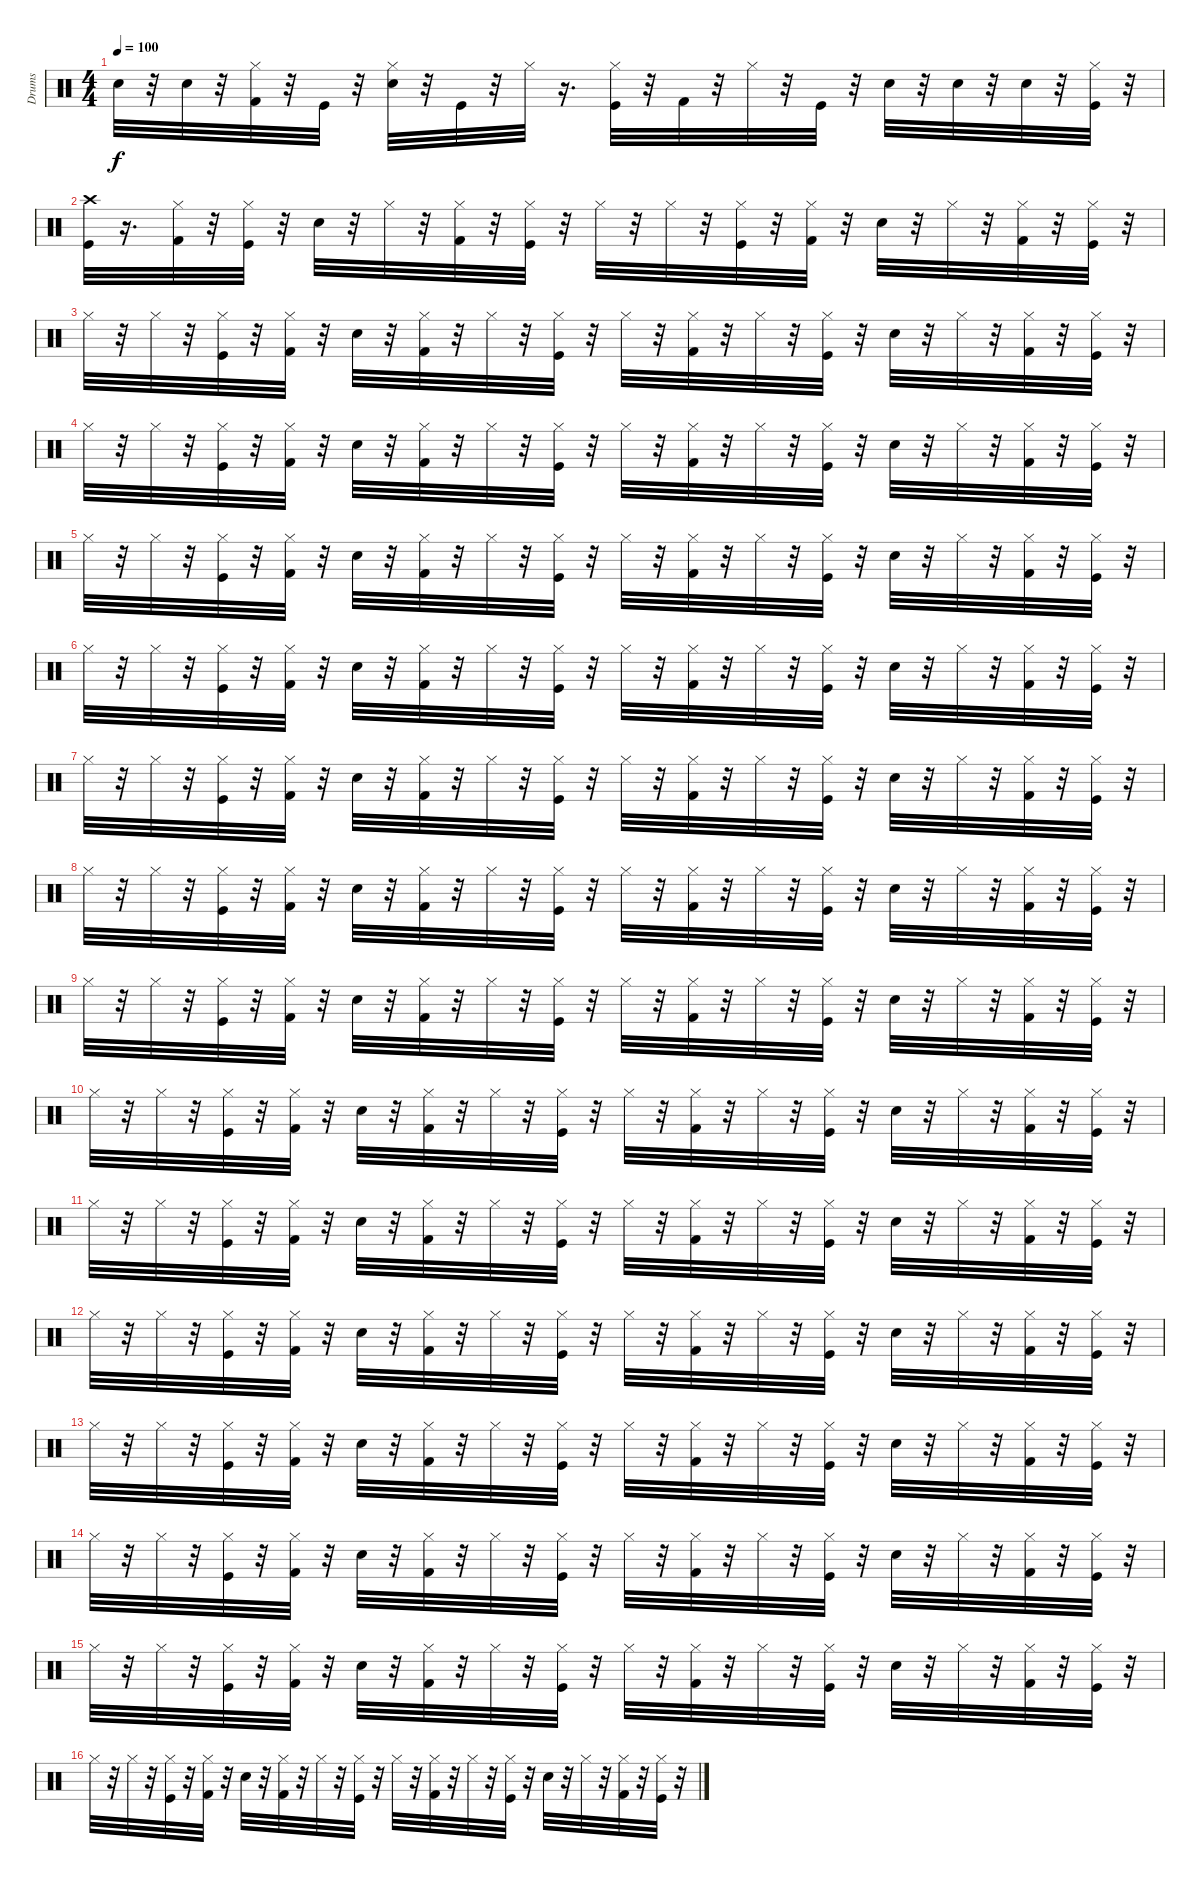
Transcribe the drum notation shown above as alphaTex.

\track ("Drums" "Drums") {instrument percussion}
\staff {score}
\articulation defaults
\ts (4 4)
\tempo 100
\clef neutral
\ks c "Snare (hit) 2".32{dy f}
r.32 "Snare (hit) 2".32 r.32 ("Kick (hit) 2" "Hi-Hat (closed)").32 r.32 "Kick (hit)".32 r.32 ("Electric Snare (hit)" "Hi-Hat (closed)").32 r.32 "Kick (hit)".32 r.32 "Hi-Hat (closed)".32 r.16{d} ("Kick (hit)" "Hi-Hat (closed)").32 r.32 "Kick (hit) 2".32 r.32 "Hi-Hat (closed)".32 r.32 "Kick (hit)".32 r.32 "Electric Snare (hit)".32 r.32 "Electric Snare (hit)".32 r.32 "Electric Snare (hit)".32 r.32 ("Hi-Hat (closed)" "Kick (hit)").32 r.32 |
("Kick (hit)" "Crash high (hit)").32 r.16{d} ("Kick (hit) 2" "Hi-Hat (closed)").32 r.32 ("Kick (hit)" "Hi-Hat (closed)").32 r.32 "Electric Snare (hit)".32 r.32 "Hi-Hat (closed)".32 r.32 ("Kick (hit) 2" "Hi-Hat (closed)").32 r.32 ("Kick (hit)" "Hi-Hat (closed)").32 r.32 "Hi-Hat (closed)".32 r.32 "Hi-Hat (closed)".32 r.32 ("Kick (hit)" "Hi-Hat (closed)").32 r.32 ("Kick (hit) 2" "Hi-Hat (closed)").32 r.32 "Electric Snare (hit)".32 r.32 "Hi-Hat (closed)".32 r.32 ("Kick (hit) 2" "Hi-Hat (closed)").32 r.32 ("Kick (hit)" "Hi-Hat (closed)").32 r.32 |
"Hi-Hat (closed)".32 r.32 "Hi-Hat (closed)".32 r.32 ("Hi-Hat (closed)" "Kick (hit)").32 r.32 ("Hi-Hat (closed)" "Kick (hit) 2").32 r.32 "Electric Snare (hit)".32 r.32 ("Hi-Hat (closed)" "Kick (hit) 2").32 r.32 "Hi-Hat (closed)".32 r.32 ("Hi-Hat (closed)" "Kick (hit)").32 r.32 "Hi-Hat (closed)".32 r.32 ("Hi-Hat (closed)" "Kick (hit) 2").32 r.32 "Hi-Hat (closed)".32 r.32 ("Hi-Hat (closed)" "Kick (hit)").32 r.32 "Electric Snare (hit)".32 r.32 "Hi-Hat (closed)".32 r.32 ("Hi-Hat (closed)" "Kick (hit) 2").32 r.32 ("Hi-Hat (closed)" "Kick (hit)").32 r.32 |
"Hi-Hat (closed)".32 r.32 "Hi-Hat (closed)".32 r.32 ("Hi-Hat (closed)" "Kick (hit)").32 r.32 ("Hi-Hat (closed)" "Kick (hit) 2").32 r.32 "Electric Snare (hit)".32 r.32 ("Hi-Hat (closed)" "Kick (hit) 2").32 r.32 "Hi-Hat (closed)".32 r.32 ("Hi-Hat (closed)" "Kick (hit)").32 r.32 "Hi-Hat (closed)".32 r.32 ("Hi-Hat (closed)" "Kick (hit) 2").32 r.32 "Hi-Hat (closed)".32 r.32 ("Hi-Hat (closed)" "Kick (hit)").32 r.32 "Electric Snare (hit)".32 r.32 "Hi-Hat (closed)".32 r.32 ("Hi-Hat (closed)" "Kick (hit) 2").32 r.32 ("Hi-Hat (closed)" "Kick (hit)").32 r.32 |
"Hi-Hat (closed)".32 r.32 "Hi-Hat (closed)".32 r.32 ("Hi-Hat (closed)" "Kick (hit)").32 r.32 ("Hi-Hat (closed)" "Kick (hit) 2").32 r.32 "Electric Snare (hit)".32 r.32 ("Hi-Hat (closed)" "Kick (hit) 2").32 r.32 "Hi-Hat (closed)".32 r.32 ("Hi-Hat (closed)" "Kick (hit)").32 r.32 "Hi-Hat (closed)".32 r.32 ("Hi-Hat (closed)" "Kick (hit) 2").32 r.32 "Hi-Hat (closed)".32 r.32 ("Hi-Hat (closed)" "Kick (hit)").32 r.32 "Electric Snare (hit)".32 r.32 "Hi-Hat (closed)".32 r.32 ("Hi-Hat (closed)" "Kick (hit) 2").32 r.32 ("Hi-Hat (closed)" "Kick (hit)").32 r.32 |
"Hi-Hat (closed)".32 r.32 "Hi-Hat (closed)".32 r.32 ("Hi-Hat (closed)" "Kick (hit)").32 r.32 ("Hi-Hat (closed)" "Kick (hit) 2").32 r.32 "Electric Snare (hit)".32 r.32 ("Hi-Hat (closed)" "Kick (hit) 2").32 r.32 "Hi-Hat (closed)".32 r.32 ("Hi-Hat (closed)" "Kick (hit)").32 r.32 "Hi-Hat (closed)".32 r.32 ("Hi-Hat (closed)" "Kick (hit) 2").32 r.32 "Hi-Hat (closed)".32 r.32 ("Hi-Hat (closed)" "Kick (hit)").32 r.32 "Electric Snare (hit)".32 r.32 "Hi-Hat (closed)".32 r.32 ("Hi-Hat (closed)" "Kick (hit) 2").32 r.32 ("Hi-Hat (closed)" "Kick (hit)").32 r.32 |
"Hi-Hat (closed)".32 r.32 "Hi-Hat (closed)".32 r.32 ("Hi-Hat (closed)" "Kick (hit)").32 r.32 ("Hi-Hat (closed)" "Kick (hit) 2").32 r.32 "Electric Snare (hit)".32 r.32 ("Hi-Hat (closed)" "Kick (hit) 2").32 r.32 "Hi-Hat (closed)".32 r.32 ("Hi-Hat (closed)" "Kick (hit)").32 r.32 "Hi-Hat (closed)".32 r.32 ("Hi-Hat (closed)" "Kick (hit) 2").32 r.32 "Hi-Hat (closed)".32 r.32 ("Hi-Hat (closed)" "Kick (hit)").32 r.32 "Electric Snare (hit)".32 r.32 "Hi-Hat (closed)".32 r.32 ("Hi-Hat (closed)" "Kick (hit) 2").32 r.32 ("Hi-Hat (closed)" "Kick (hit)").32 r.32 |
"Hi-Hat (closed)".32 r.32 "Hi-Hat (closed)".32 r.32 ("Hi-Hat (closed)" "Kick (hit)").32 r.32 ("Hi-Hat (closed)" "Kick (hit) 2").32 r.32 "Electric Snare (hit)".32 r.32 ("Hi-Hat (closed)" "Kick (hit) 2").32 r.32 "Hi-Hat (closed)".32 r.32 ("Hi-Hat (closed)" "Kick (hit)").32 r.32 "Hi-Hat (closed)".32 r.32 ("Hi-Hat (closed)" "Kick (hit) 2").32 r.32 "Hi-Hat (closed)".32 r.32 ("Hi-Hat (closed)" "Kick (hit)").32 r.32 "Electric Snare (hit)".32 r.32 "Hi-Hat (closed)".32 r.32 ("Hi-Hat (closed)" "Kick (hit) 2").32 r.32 ("Hi-Hat (closed)" "Kick (hit)").32 r.32 |
"Hi-Hat (closed)".32 r.32 "Hi-Hat (closed)".32 r.32 ("Hi-Hat (closed)" "Kick (hit)").32 r.32 ("Hi-Hat (closed)" "Kick (hit) 2").32 r.32 "Electric Snare (hit)".32 r.32 ("Hi-Hat (closed)" "Kick (hit) 2").32 r.32 "Hi-Hat (closed)".32 r.32 ("Hi-Hat (closed)" "Kick (hit)").32 r.32 "Hi-Hat (closed)".32 r.32 ("Hi-Hat (closed)" "Kick (hit) 2").32 r.32 "Hi-Hat (closed)".32 r.32 ("Hi-Hat (closed)" "Kick (hit)").32 r.32 "Electric Snare (hit)".32 r.32 "Hi-Hat (closed)".32 r.32 ("Hi-Hat (closed)" "Kick (hit) 2").32 r.32 ("Hi-Hat (closed)" "Kick (hit)").32 r.32 |
"Hi-Hat (closed)".32 r.32 "Hi-Hat (closed)".32 r.32 ("Hi-Hat (closed)" "Kick (hit)").32 r.32 ("Hi-Hat (closed)" "Kick (hit) 2").32 r.32 "Electric Snare (hit)".32 r.32 ("Hi-Hat (closed)" "Kick (hit) 2").32 r.32 "Hi-Hat (closed)".32 r.32 ("Hi-Hat (closed)" "Kick (hit)").32 r.32 "Hi-Hat (closed)".32 r.32 ("Hi-Hat (closed)" "Kick (hit) 2").32 r.32 "Hi-Hat (closed)".32 r.32 ("Hi-Hat (closed)" "Kick (hit)").32 r.32 "Electric Snare (hit)".32 r.32 "Hi-Hat (closed)".32 r.32 ("Hi-Hat (closed)" "Kick (hit) 2").32 r.32 ("Hi-Hat (closed)" "Kick (hit)").32 r.32 |
"Hi-Hat (closed)".32 r.32 "Hi-Hat (closed)".32 r.32 ("Hi-Hat (closed)" "Kick (hit)").32 r.32 ("Hi-Hat (closed)" "Kick (hit) 2").32 r.32 "Electric Snare (hit)".32 r.32 ("Hi-Hat (closed)" "Kick (hit) 2").32 r.32 "Hi-Hat (closed)".32 r.32 ("Hi-Hat (closed)" "Kick (hit)").32 r.32 "Hi-Hat (closed)".32 r.32 ("Hi-Hat (closed)" "Kick (hit) 2").32 r.32 "Hi-Hat (closed)".32 r.32 ("Hi-Hat (closed)" "Kick (hit)").32 r.32 "Electric Snare (hit)".32 r.32 "Hi-Hat (closed)".32 r.32 ("Hi-Hat (closed)" "Kick (hit) 2").32 r.32 ("Hi-Hat (closed)" "Kick (hit)").32 r.32 |
"Hi-Hat (closed)".32 r.32 "Hi-Hat (closed)".32 r.32 ("Hi-Hat (closed)" "Kick (hit)").32 r.32 ("Hi-Hat (closed)" "Kick (hit) 2").32 r.32 "Electric Snare (hit)".32 r.32 ("Hi-Hat (closed)" "Kick (hit) 2").32 r.32 "Hi-Hat (closed)".32 r.32 ("Hi-Hat (closed)" "Kick (hit)").32 r.32 "Hi-Hat (closed)".32 r.32 ("Hi-Hat (closed)" "Kick (hit) 2").32 r.32 "Hi-Hat (closed)".32 r.32 ("Hi-Hat (closed)" "Kick (hit)").32 r.32 "Electric Snare (hit)".32 r.32 "Hi-Hat (closed)".32 r.32 ("Hi-Hat (closed)" "Kick (hit) 2").32 r.32 ("Hi-Hat (closed)" "Kick (hit)").32 r.32 |
"Hi-Hat (closed)".32 r.32 "Hi-Hat (closed)".32 r.32 ("Hi-Hat (closed)" "Kick (hit)").32 r.32 ("Hi-Hat (closed)" "Kick (hit) 2").32 r.32 "Electric Snare (hit)".32 r.32 ("Hi-Hat (closed)" "Kick (hit) 2").32 r.32 "Hi-Hat (closed)".32 r.32 ("Hi-Hat (closed)" "Kick (hit)").32 r.32 "Hi-Hat (closed)".32 r.32 ("Hi-Hat (closed)" "Kick (hit) 2").32 r.32 "Hi-Hat (closed)".32 r.32 ("Hi-Hat (closed)" "Kick (hit)").32 r.32 "Electric Snare (hit)".32 r.32 "Hi-Hat (closed)".32 r.32 ("Hi-Hat (closed)" "Kick (hit) 2").32 r.32 ("Hi-Hat (closed)" "Kick (hit)").32 r.32 |
"Hi-Hat (closed)".32 r.32 "Hi-Hat (closed)".32 r.32 ("Hi-Hat (closed)" "Kick (hit)").32 r.32 ("Hi-Hat (closed)" "Kick (hit) 2").32 r.32 "Electric Snare (hit)".32 r.32 ("Hi-Hat (closed)" "Kick (hit) 2").32 r.32 "Hi-Hat (closed)".32 r.32 ("Hi-Hat (closed)" "Kick (hit)").32 r.32 "Hi-Hat (closed)".32 r.32 ("Hi-Hat (closed)" "Kick (hit) 2").32 r.32 "Hi-Hat (closed)".32 r.32 ("Hi-Hat (closed)" "Kick (hit)").32 r.32 "Electric Snare (hit)".32 r.32 "Hi-Hat (closed)".32 r.32 ("Hi-Hat (closed)" "Kick (hit) 2").32 r.32 ("Hi-Hat (closed)" "Kick (hit)").32 r.32 |
"Hi-Hat (closed)".32 r.32 "Hi-Hat (closed)".32 r.32 ("Hi-Hat (closed)" "Kick (hit)").32 r.32 ("Hi-Hat (closed)" "Kick (hit) 2").32 r.32 "Electric Snare (hit)".32 r.32 ("Hi-Hat (closed)" "Kick (hit) 2").32 r.32 "Hi-Hat (closed)".32 r.32 ("Hi-Hat (closed)" "Kick (hit)").32 r.32 "Hi-Hat (closed)".32 r.32 ("Hi-Hat (closed)" "Kick (hit) 2").32 r.32 "Hi-Hat (closed)".32 r.32 ("Hi-Hat (closed)" "Kick (hit)").32 r.32 "Electric Snare (hit)".32 r.32 "Hi-Hat (closed)".32 r.32 ("Hi-Hat (closed)" "Kick (hit) 2").32 r.32 ("Hi-Hat (closed)" "Kick (hit)").32 r.32 |
"Hi-Hat (closed)".32 r.32 "Hi-Hat (closed)".32 r.32 ("Hi-Hat (closed)" "Kick (hit)").32 r.32 ("Hi-Hat (closed)" "Kick (hit) 2").32 r.32 "Electric Snare (hit)".32 r.32 ("Hi-Hat (closed)" "Kick (hit) 2").32 r.32 "Hi-Hat (closed)".32 r.32 ("Hi-Hat (closed)" "Kick (hit)").32 r.32 "Hi-Hat (closed)".32 r.32 ("Hi-Hat (closed)" "Kick (hit) 2").32 r.32 "Hi-Hat (closed)".32 r.32 ("Hi-Hat (closed)" "Kick (hit)").32 r.32 "Electric Snare (hit)".32 r.32 "Hi-Hat (closed)".32 r.32 ("Hi-Hat (closed)" "Kick (hit) 2").32 r.32 ("Hi-Hat (closed)" "Kick (hit)").32 r.32
